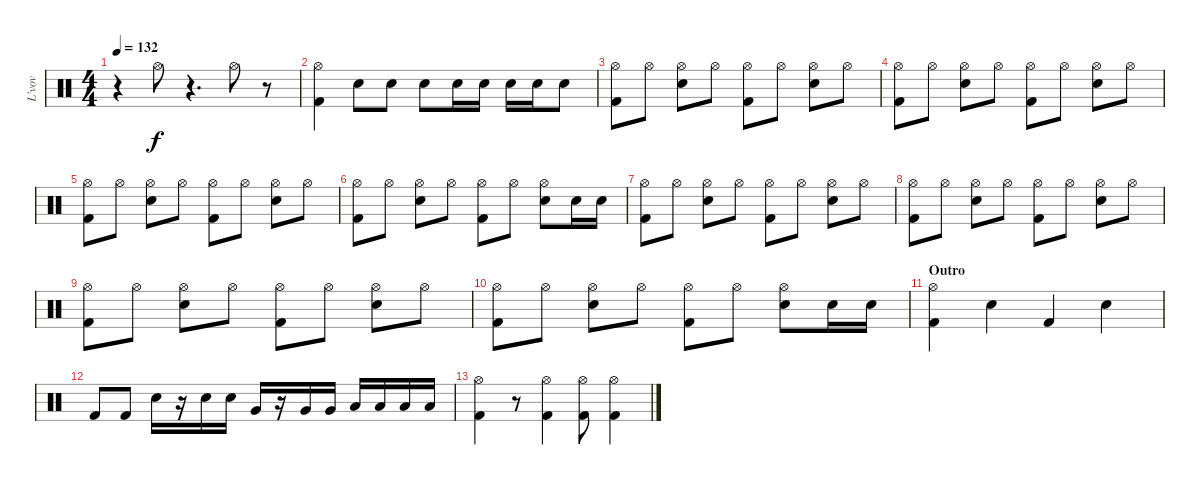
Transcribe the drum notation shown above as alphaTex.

\track ("L'vov" "L'vov") {instrument percussion}
\staff {score}
\articulation defaults
\ts (4 4)
\tempo 132
\clef neutral
\ks c
r.4{dy f} "Hi-Hat (open)".8 r.4{d} "Hi-Hat (open)".8 r.8 |
("Hi-Hat (open)" "Kick (hit) 2").4 "Electric Snare (hit)".8 "Snare (hit) 2".8 "Snare (hit) 2".8 "Snare (hit) 2".16 "Snare (hit) 2".16 "Snare (hit) 2".16 "Snare (hit) 2".16 "Snare (hit) 2".8 |
("Hi-Hat (open)" "Kick (hit) 2").8 "Hi-Hat (open)".8 ("Hi-Hat (open)" "Snare (hit) 2").8 "Hi-Hat (open)".8 ("Hi-Hat (open)" "Kick (hit) 2").8 "Hi-Hat (open)".8 ("Hi-Hat (open)" "Snare (hit) 2").8 "Hi-Hat (open)".8 |
("Hi-Hat (open)" "Kick (hit) 2").8 "Hi-Hat (open)".8 ("Hi-Hat (open)" "Snare (hit) 2").8 "Hi-Hat (open)".8 ("Hi-Hat (open)" "Kick (hit) 2").8 "Hi-Hat (open)".8 ("Hi-Hat (open)" "Snare (hit) 2").8 "Hi-Hat (open)".8 |
("Hi-Hat (open)" "Kick (hit) 2").8 "Hi-Hat (open)".8 ("Hi-Hat (open)" "Snare (hit) 2").8 "Hi-Hat (open)".8 ("Hi-Hat (open)" "Kick (hit) 2").8 "Hi-Hat (open)".8 ("Hi-Hat (open)" "Snare (hit) 2").8 "Hi-Hat (open)".8 |
("Hi-Hat (open)" "Kick (hit) 2").8 "Hi-Hat (open)".8 ("Hi-Hat (open)" "Snare (hit) 2").8 "Hi-Hat (open)".8 ("Hi-Hat (open)" "Kick (hit) 2").8 "Hi-Hat (open)".8 ("Hi-Hat (open)" "Snare (hit) 2").8 "Snare (hit) 2".16 "Snare (hit) 2".16 |
("Hi-Hat (open)" "Kick (hit) 2").8 "Hi-Hat (open)".8 ("Hi-Hat (open)" "Snare (hit) 2").8 "Hi-Hat (open)".8 ("Hi-Hat (open)" "Kick (hit) 2").8 "Hi-Hat (open)".8 ("Hi-Hat (open)" "Snare (hit) 2").8 "Hi-Hat (open)".8 |
("Hi-Hat (open)" "Kick (hit) 2").8 "Hi-Hat (open)".8 ("Hi-Hat (open)" "Snare (hit) 2").8 "Hi-Hat (open)".8 ("Hi-Hat (open)" "Kick (hit) 2").8 "Hi-Hat (open)".8 ("Hi-Hat (open)" "Snare (hit) 2").8 "Hi-Hat (open)".8 |
("Hi-Hat (open)" "Kick (hit) 2").8 "Hi-Hat (open)".8 ("Hi-Hat (open)" "Snare (hit) 2").8 "Hi-Hat (open)".8 ("Hi-Hat (open)" "Kick (hit) 2").8 "Hi-Hat (open)".8 ("Hi-Hat (open)" "Snare (hit) 2").8 "Hi-Hat (open)".8 |
("Hi-Hat (open)" "Kick (hit) 2").8 "Hi-Hat (open)".8 ("Hi-Hat (open)" "Snare (hit) 2").8 "Hi-Hat (open)".8 ("Hi-Hat (open)" "Kick (hit) 2").8 "Hi-Hat (open)".8 ("Hi-Hat (open)" "Snare (hit) 2").8 "Snare (hit) 2".16 "Snare (hit) 2".16 |
\section ("" "Outro")
("Kick (hit) 2" "Hi-Hat (open)").4 "Snare (hit) 2".4 "Kick (hit) 2".4 "Snare (hit) 2".4 |
"Kick (hit) 2".8 "Kick (hit) 2".8 "Snare (hit) 2".16 r.16 "Snare (hit) 2".16 "Snare (hit) 2".16 "Very Low Tom (hit)".16 r.16 "Very Low Tom (hit)".16 "Very Low Tom (hit)".16 "Low Floor Tom (hit)".16 "Low Floor Tom (hit)".16 "Low Tom (hit)".16 "Low Tom (hit)".16 |
("Kick (hit) 2" "Hi-Hat (open)").4 r.8 ("Kick (hit) 2" "Hi-Hat (open)").4 ("Hi-Hat (open)" "Kick (hit) 2").8 ("Kick (hit) 2" "Hi-Hat (open)").4
